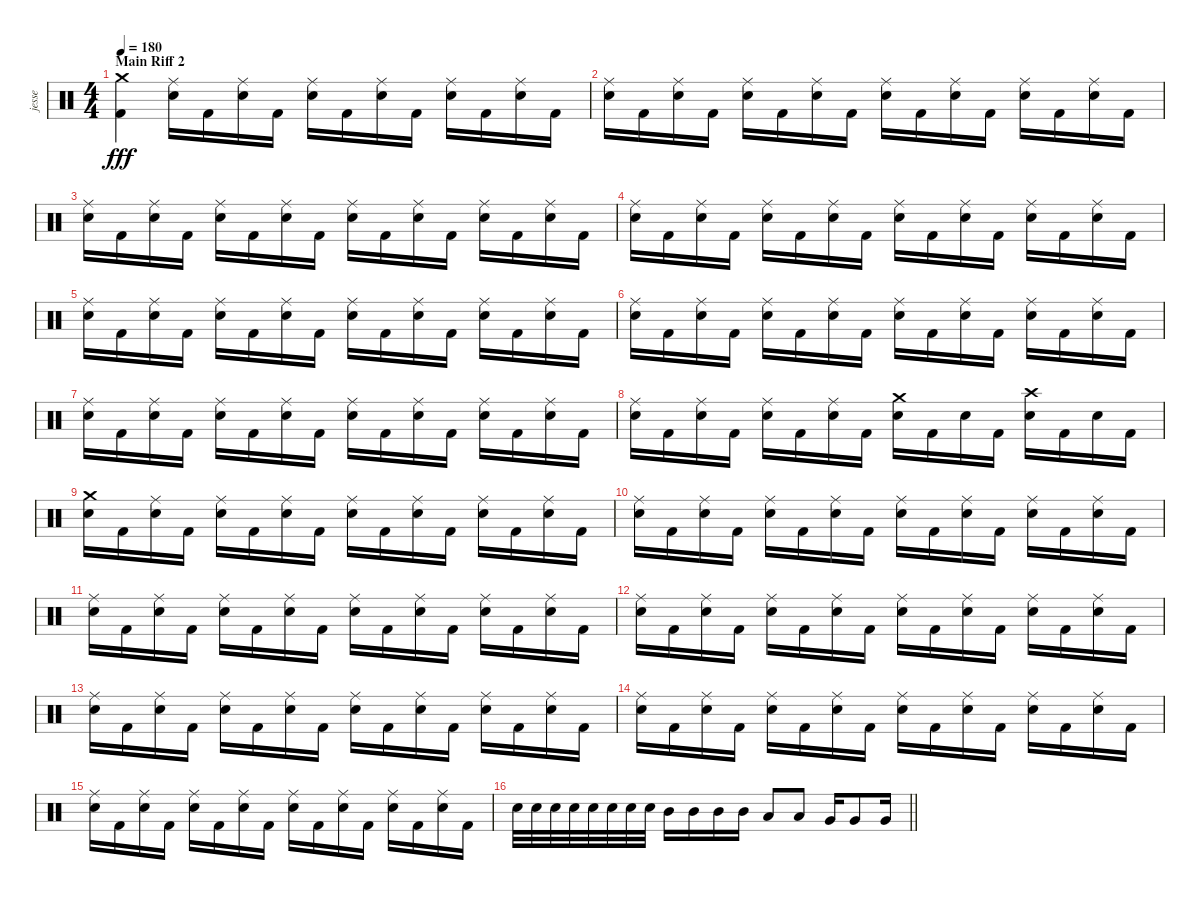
\track ("jesse" "jesse") {instrument percussion}
\staff {score}
\articulation defaults
\ts (4 4)
\section ("" "Main Riff 2")
\tempo 180
\clef neutral
\ks c
("Crash medium (hit)" "Kick (hit) 2").4{dy fff} ("Ride (middle)" "Snare (hit) 2").16 "Kick (hit) 2".16 ("Ride (middle)" "Snare (hit) 2").16 "Kick (hit) 2".16 ("Ride (middle)" "Snare (hit) 2").16 "Kick (hit) 2".16 ("Ride (middle)" "Snare (hit) 2").16 "Kick (hit) 2".16 ("Ride (middle)" "Snare (hit) 2").16 "Kick (hit) 2".16 ("Ride (middle)" "Snare (hit) 2").16 "Kick (hit) 2".16 |
("Ride (middle)" "Snare (hit) 2").16 "Kick (hit) 2".16 ("Ride (middle)" "Snare (hit) 2").16 "Kick (hit) 2".16 ("Ride (middle)" "Snare (hit) 2").16 "Kick (hit) 2".16 ("Ride (middle)" "Snare (hit) 2").16 "Kick (hit) 2".16 ("Ride (middle)" "Snare (hit) 2").16 "Kick (hit) 2".16 ("Ride (middle)" "Snare (hit) 2").16 "Kick (hit) 2".16 ("Ride (middle)" "Snare (hit) 2").16 "Kick (hit) 2".16 ("Ride (middle)" "Snare (hit) 2").16 "Kick (hit) 2".16 |
("Ride (middle)" "Snare (hit) 2").16 "Kick (hit) 2".16 ("Ride (middle)" "Snare (hit) 2").16 "Kick (hit) 2".16 ("Ride (middle)" "Snare (hit) 2").16 "Kick (hit) 2".16 ("Ride (middle)" "Snare (hit) 2").16 "Kick (hit) 2".16 ("Ride (middle)" "Snare (hit) 2").16 "Kick (hit) 2".16 ("Ride (middle)" "Snare (hit) 2").16 "Kick (hit) 2".16 ("Ride (middle)" "Snare (hit) 2").16 "Kick (hit) 2".16 ("Ride (middle)" "Snare (hit) 2").16 "Kick (hit) 2".16 |
("Ride (middle)" "Snare (hit) 2").16 "Kick (hit) 2".16 ("Ride (middle)" "Snare (hit) 2").16 "Kick (hit) 2".16 ("Ride (middle)" "Snare (hit) 2").16 "Kick (hit) 2".16 ("Ride (middle)" "Snare (hit) 2").16 "Kick (hit) 2".16 ("Ride (middle)" "Snare (hit) 2").16 "Kick (hit) 2".16 ("Ride (middle)" "Snare (hit) 2").16 "Kick (hit) 2".16 ("Ride (middle)" "Snare (hit) 2").16 "Kick (hit) 2".16 ("Ride (middle)" "Snare (hit) 2").16 "Kick (hit) 2".16 |
("Ride (middle)" "Snare (hit) 2").16 "Kick (hit) 2".16 ("Ride (middle)" "Snare (hit) 2").16 "Kick (hit) 2".16 ("Ride (middle)" "Snare (hit) 2").16 "Kick (hit) 2".16 ("Ride (middle)" "Snare (hit) 2").16 "Kick (hit) 2".16 ("Ride (middle)" "Snare (hit) 2").16 "Kick (hit) 2".16 ("Ride (middle)" "Snare (hit) 2").16 "Kick (hit) 2".16 ("Ride (middle)" "Snare (hit) 2").16 "Kick (hit) 2".16 ("Ride (middle)" "Snare (hit) 2").16 "Kick (hit) 2".16 |
("Ride (middle)" "Snare (hit) 2").16 "Kick (hit) 2".16 ("Ride (middle)" "Snare (hit) 2").16 "Kick (hit) 2".16 ("Ride (middle)" "Snare (hit) 2").16 "Kick (hit) 2".16 ("Ride (middle)" "Snare (hit) 2").16 "Kick (hit) 2".16 ("Ride (middle)" "Snare (hit) 2").16 "Kick (hit) 2".16 ("Ride (middle)" "Snare (hit) 2").16 "Kick (hit) 2".16 ("Ride (middle)" "Snare (hit) 2").16 "Kick (hit) 2".16 ("Ride (middle)" "Snare (hit) 2").16 "Kick (hit) 2".16 |
("Ride (middle)" "Snare (hit) 2").16 "Kick (hit) 2".16 ("Ride (middle)" "Snare (hit) 2").16 "Kick (hit) 2".16 ("Ride (middle)" "Snare (hit) 2").16 "Kick (hit) 2".16 ("Ride (middle)" "Snare (hit) 2").16 "Kick (hit) 2".16 ("Ride (middle)" "Snare (hit) 2").16 "Kick (hit) 2".16 ("Ride (middle)" "Snare (hit) 2").16 "Kick (hit) 2".16 ("Ride (middle)" "Snare (hit) 2").16 "Kick (hit) 2".16 ("Ride (middle)" "Snare (hit) 2").16 "Kick (hit) 2".16 |
("Ride (middle)" "Snare (hit) 2").16 "Kick (hit) 2".16 ("Ride (middle)" "Snare (hit) 2").16 "Kick (hit) 2".16 ("Ride (middle)" "Snare (hit) 2").16 "Kick (hit) 2".16 ("Ride (middle)" "Snare (hit) 2").16 "Kick (hit) 2".16 ("Crash medium (hit)" "Snare (hit) 2").16 "Kick (hit) 2".16 "Snare (hit) 2".16 "Kick (hit) 2".16 ("Crash high (hit)" "Snare (hit) 2").16 "Kick (hit) 2".16 "Snare (hit) 2".16 "Kick (hit) 2".16 |
("Crash medium (hit)" "Snare (hit) 2").16 "Kick (hit) 2".16 ("Ride (middle)" "Snare (hit) 2").16 "Kick (hit) 2".16 ("Ride (middle)" "Snare (hit) 2").16 "Kick (hit) 2".16 ("Ride (middle)" "Snare (hit) 2").16 "Kick (hit) 2".16 ("Ride (middle)" "Snare (hit) 2").16 "Kick (hit) 2".16 ("Ride (middle)" "Snare (hit) 2").16 "Kick (hit) 2".16 ("Ride (middle)" "Snare (hit) 2").16 "Kick (hit) 2".16 ("Ride (middle)" "Snare (hit) 2").16 "Kick (hit) 2".16 |
("Ride (middle)" "Snare (hit) 2").16 "Kick (hit) 2".16 ("Ride (middle)" "Snare (hit) 2").16 "Kick (hit) 2".16 ("Ride (middle)" "Snare (hit) 2").16 "Kick (hit) 2".16 ("Ride (middle)" "Snare (hit) 2").16 "Kick (hit) 2".16 ("Ride (middle)" "Snare (hit) 2").16 "Kick (hit) 2".16 ("Ride (middle)" "Snare (hit) 2").16 "Kick (hit) 2".16 ("Ride (middle)" "Snare (hit) 2").16 "Kick (hit) 2".16 ("Ride (middle)" "Snare (hit) 2").16 "Kick (hit) 2".16 |
("Ride (middle)" "Snare (hit) 2").16 "Kick (hit) 2".16 ("Ride (middle)" "Snare (hit) 2").16 "Kick (hit) 2".16 ("Ride (middle)" "Snare (hit) 2").16 "Kick (hit) 2".16 ("Ride (middle)" "Snare (hit) 2").16 "Kick (hit) 2".16 ("Ride (middle)" "Snare (hit) 2").16 "Kick (hit) 2".16 ("Ride (middle)" "Snare (hit) 2").16 "Kick (hit) 2".16 ("Ride (middle)" "Snare (hit) 2").16 "Kick (hit) 2".16 ("Ride (middle)" "Snare (hit) 2").16 "Kick (hit) 2".16 |
("Ride (middle)" "Snare (hit) 2").16 "Kick (hit) 2".16 ("Ride (middle)" "Snare (hit) 2").16 "Kick (hit) 2".16 ("Ride (middle)" "Snare (hit) 2").16 "Kick (hit) 2".16 ("Ride (middle)" "Snare (hit) 2").16 "Kick (hit) 2".16 ("Ride (middle)" "Snare (hit) 2").16 "Kick (hit) 2".16 ("Ride (middle)" "Snare (hit) 2").16 "Kick (hit) 2".16 ("Ride (middle)" "Snare (hit) 2").16 "Kick (hit) 2".16 ("Ride (middle)" "Snare (hit) 2").16 "Kick (hit) 2".16 |
("Ride (middle)" "Snare (hit) 2").16 "Kick (hit) 2".16 ("Ride (middle)" "Snare (hit) 2").16 "Kick (hit) 2".16 ("Ride (middle)" "Snare (hit) 2").16 "Kick (hit) 2".16 ("Ride (middle)" "Snare (hit) 2").16 "Kick (hit) 2".16 ("Ride (middle)" "Snare (hit) 2").16 "Kick (hit) 2".16 ("Ride (middle)" "Snare (hit) 2").16 "Kick (hit) 2".16 ("Ride (middle)" "Snare (hit) 2").16 "Kick (hit) 2".16 ("Ride (middle)" "Snare (hit) 2").16 "Kick (hit) 2".16 |
("Ride (middle)" "Snare (hit) 2").16 "Kick (hit) 2".16 ("Ride (middle)" "Snare (hit) 2").16 "Kick (hit) 2".16 ("Ride (middle)" "Snare (hit) 2").16 "Kick (hit) 2".16 ("Ride (middle)" "Snare (hit) 2").16 "Kick (hit) 2".16 ("Ride (middle)" "Snare (hit) 2").16 "Kick (hit) 2".16 ("Ride (middle)" "Snare (hit) 2").16 "Kick (hit) 2".16 ("Ride (middle)" "Snare (hit) 2").16 "Kick (hit) 2".16 ("Ride (middle)" "Snare (hit) 2").16 "Kick (hit) 2".16 |
("Ride (middle)" "Snare (hit) 2").16 "Kick (hit) 2".16 ("Ride (middle)" "Snare (hit) 2").16 "Kick (hit) 2".16 ("Ride (middle)" "Snare (hit) 2").16 "Kick (hit) 2".16 ("Ride (middle)" "Snare (hit) 2").16 "Kick (hit) 2".16 ("Ride (middle)" "Snare (hit) 2").16 "Kick (hit) 2".16 ("Ride (middle)" "Snare (hit) 2").16 "Kick (hit) 2".16 ("Ride (middle)" "Snare (hit) 2").16 "Kick (hit) 2".16 ("Ride (middle)" "Snare (hit) 2").16 "Kick (hit) 2".16 |
\barLineRight lightlight "Electric Snare (hit)".32 "Electric Snare (hit)".32 "Electric Snare (hit)".32 "Electric Snare (hit)".32 "Electric Snare (hit)".32 "Electric Snare (hit)".32 "Electric Snare (hit)".32 "Electric Snare (hit)".32 "Mid Tom (hit)".16 "Mid Tom (hit)".16 "Mid Tom (hit)".16 "Mid Tom (hit)".16 "Low Tom (hit)".8 "Low Tom (hit)".8 "Very Low Tom (hit)".16 "Very Low Tom (hit)".8 "Very Low Tom (hit)".16
